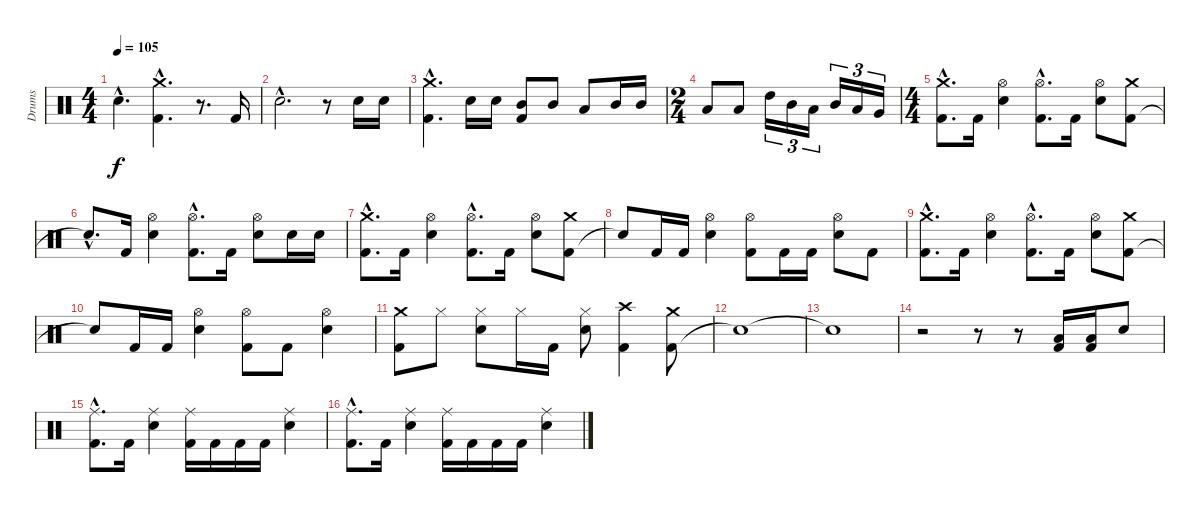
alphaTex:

\track ("Drums" "Drums") {instrument percussion}
\staff {score}
\articulation defaults
\ts (4 4)
\tempo 105
\clef neutral
\ks c "Electric Snare (hit)"{hac}.4{d dy f}
("Kick (hit) 2"{hac} "Crash medium (hit)"{hac}).4{d} r.8{d} "Kick (hit) 2".16 |
"Electric Snare (hit)"{hac}.2{d} r.8 "Electric Snare (hit)".16 "Electric Snare (hit)".16 |
("Kick (hit) 2"{hac} "Crash medium (hit)"{hac}).4{d} "Electric Snare (hit)".16 "Electric Snare (hit)".16 ("Kick (hit) 2" "Mid Tom (hit)").8 "Mid Tom (hit)".8 "Low Tom (hit)".8 "Mid Tom (hit)".16 "Mid Tom (hit)".16 |
\ts (2 4)
"Low Tom (hit)".8 "Low Tom (hit)".8 "High Tom (hit)".16{tu (3 2)} "Mid Tom (hit)".16{tu (3 2)} "Low Tom (hit)".16{tu (3 2)} "Mid Tom (hit)".16{tu (3 2)} "Low Tom (hit)".16{tu (3 2)} "Very Low Tom (hit)".16{tu (3 2)} |
\ts (4 4)
("Kick (hit) 2"{hac} "Crash medium (hit)"{hac}).8{d} "Kick (hit) 2".16 ("Electric Snare (hit)" "Hi-Hat (open)").4 ("Kick (hit) 2"{hac} "Hi-Hat (open)"{hac}).8{d} "Kick (hit) 2".16 ("Electric Snare (hit)" "Hi-Hat (open)").8 ("Kick (hit) 2" "Crash medium (hit)").8 |
"Snare (hit)"{hac t}.8{d} "Kick (hit) 2".16 ("Electric Snare (hit)" "Hi-Hat (open)").4 ("Kick (hit) 2"{hac} "Hi-Hat (open)"{hac}).8{d} "Kick (hit) 2".16 ("Electric Snare (hit)" "Hi-Hat (open)").8 "Electric Snare (hit)".16 "Electric Snare (hit)".16 |
("Kick (hit) 2"{hac} "Crash medium (hit)"{hac}).8{d} "Kick (hit) 2".16 ("Electric Snare (hit)" "Hi-Hat (open)").4 ("Kick (hit) 2"{hac} "Hi-Hat (open)"{hac}).8{d} "Kick (hit) 2".16 ("Electric Snare (hit)" "Hi-Hat (open)").8 ("Kick (hit) 2" "Crash medium (hit)").8 |
"Snare (hit)"{t}.8 "Kick (hit) 2".16 "Kick (hit) 2".16 ("Electric Snare (hit)" "Hi-Hat (open)").4 ("Kick (hit) 2" "Hi-Hat (open)").8 "Kick (hit) 2".16 "Kick (hit) 2".16 ("Electric Snare (hit)" "Hi-Hat (open)").8 "Kick (hit) 2".8 |
("Kick (hit) 2"{hac} "Crash medium (hit)"{hac}).8{d} "Kick (hit) 2".16 ("Electric Snare (hit)" "Hi-Hat (open)").4 ("Kick (hit) 2"{hac} "Hi-Hat (open)"{hac}).8{d} "Kick (hit) 2".16 ("Electric Snare (hit)" "Hi-Hat (open)").8 ("Kick (hit) 2" "Crash medium (hit)").8 |
"Snare (hit)"{t}.8 "Kick (hit) 2".16 "Kick (hit) 2".16 ("Electric Snare (hit)" "Hi-Hat (open)").4 ("Kick (hit) 2" "Hi-Hat (open)").8 "Kick (hit) 2".8 ("Electric Snare (hit)" "Hi-Hat (open)").4 |
("Kick (hit) 2" "Crash medium (hit)").8 "Hi-Hat (closed)".8 ("Electric Snare (hit)" "Hi-Hat (closed)").8 "Hi-Hat (closed)".16 "Kick (hit) 2".16 ("Electric Snare (hit)" "Hi-Hat (closed)").8 ("Kick (hit) 2" "Crash high (hit)").4 ("Kick (hit) 2" "Crash medium (hit)").8 |
"Snare (hit)"{t}.1 |
"Snare (hit)"{t}.1 |
r.2 r.8 r.8 ("Kick (hit) 2" "Low Tom (hit)").16 ("Kick (hit) 2" "Low Tom (hit)").16 "Electric Snare (hit)".8 |
("Kick (hit) 2"{hac} "Ride (middle)"{hac}).8{d} "Kick (hit) 2".16 ("Electric Snare (hit)" "Ride (middle)").4 ("Kick (hit) 2" "Ride (middle)").16 "Kick (hit) 2".16 "Kick (hit) 2".16 "Kick (hit) 2".16 ("Electric Snare (hit)" "Ride (middle)").4 |
("Kick (hit) 2"{hac} "Ride (middle)"{hac}).8{d} "Kick (hit) 2".16 ("Electric Snare (hit)" "Ride (middle)").4 ("Kick (hit) 2" "Ride (middle)").16 "Kick (hit) 2".16 "Kick (hit) 2".16 "Kick (hit) 2".16 ("Electric Snare (hit)" "Ride (middle)").4
